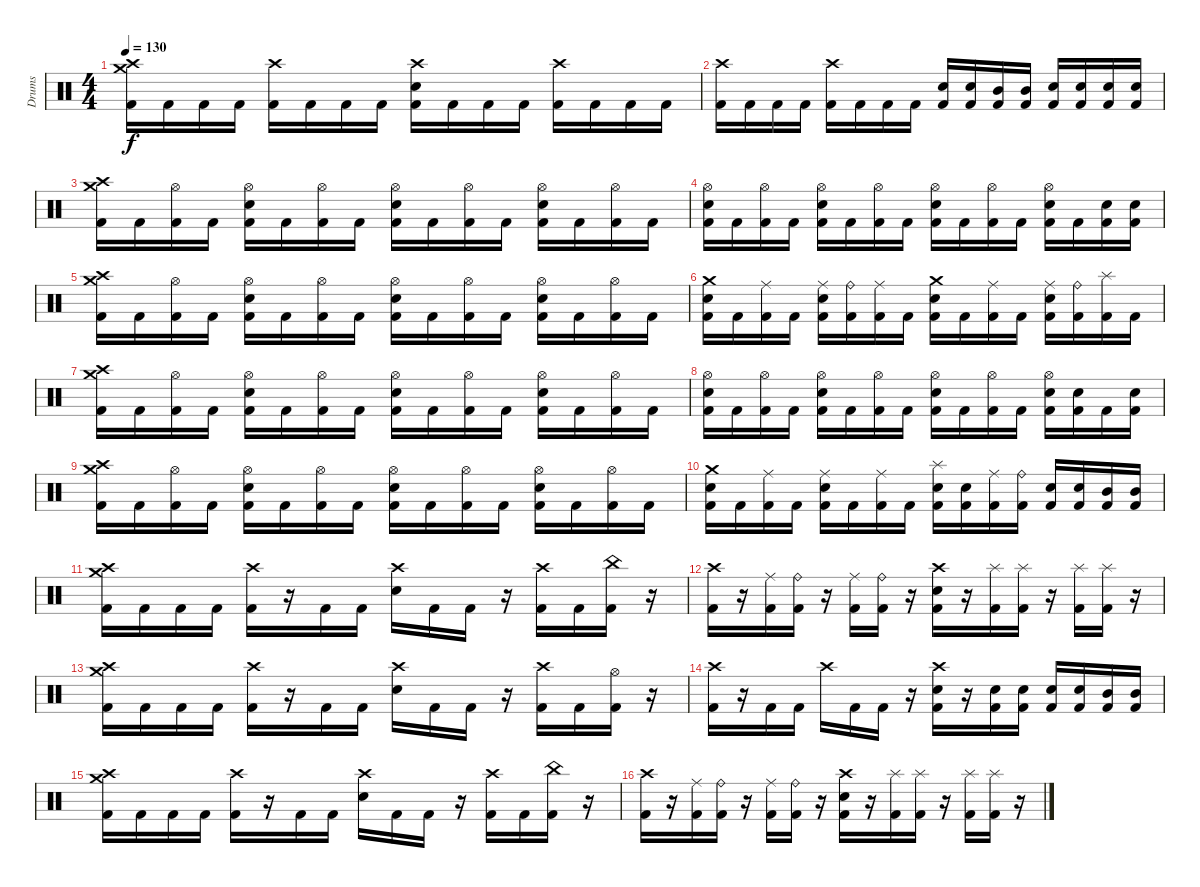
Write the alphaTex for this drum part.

\track ("Drums" "Drums") {instrument percussion}
\staff {score}
\articulation defaults
\ts (4 4)
\tempo 130
\clef neutral
\ks c
("Crash high (hit)" "Crash medium (hit)" "Kick (hit) 2").16{dy f} "Kick (hit) 2".16 "Kick (hit) 2".16 "Kick (hit) 2".16 ("Crash high (hit)" "Kick (hit) 2").16 "Kick (hit) 2".16 "Kick (hit) 2".16 "Kick (hit) 2".16 ("Crash high (hit)" "Electric Snare (hit)" "Kick (hit) 2").16 "Kick (hit) 2".16 "Kick (hit) 2".16 "Kick (hit) 2".16 ("Crash high (hit)" "Kick (hit) 2").16 "Kick (hit) 2".16 "Kick (hit) 2".16 "Kick (hit) 2".16 |
("Crash high (hit)" "Kick (hit) 2").16 "Kick (hit) 2".16 "Kick (hit) 2".16 "Kick (hit) 2".16 ("Crash high (hit)" "Kick (hit) 2").16 "Kick (hit) 2".16 "Kick (hit) 2".16 "Kick (hit) 2".16 ("Electric Snare (hit)" "Kick (hit) 2").16 ("Electric Snare (hit)" "Kick (hit) 2").16 ("Mid Tom (hit)" "Kick (hit) 2").16 ("Mid Tom (hit)" "Kick (hit) 2").16 ("Electric Snare (hit)" "Kick (hit) 2").16 ("Electric Snare (hit)" "Kick (hit) 2").16 ("Electric Snare (hit)" "Kick (hit) 2").16 ("Electric Snare (hit)" "Kick (hit) 2").16 |
("Crash high (hit)" "Crash medium (hit)" "Kick (hit) 2").16 "Kick (hit) 2".16 ("Hi-Hat (open)" "Kick (hit) 2").16 "Kick (hit) 2".16 ("Hi-Hat (open)" "Electric Snare (hit)" "Kick (hit) 2").16 "Kick (hit) 2".16 ("Hi-Hat (open)" "Kick (hit) 2").16 "Kick (hit) 2".16 ("Hi-Hat (open)" "Electric Snare (hit)" "Kick (hit) 2").16 "Kick (hit) 2".16 ("Hi-Hat (open)" "Kick (hit) 2").16 "Kick (hit) 2".16 ("Hi-Hat (open)" "Electric Snare (hit)" "Kick (hit) 2").16 "Kick (hit) 2".16 ("Hi-Hat (open)" "Kick (hit) 2").16 "Kick (hit) 2".16 |
("Hi-Hat (open)" "Electric Snare (hit)" "Kick (hit) 2").16 "Kick (hit) 2".16 ("Hi-Hat (open)" "Kick (hit) 2").16 "Kick (hit) 2".16 ("Hi-Hat (open)" "Electric Snare (hit)" "Kick (hit) 2").16 "Kick (hit) 2".16 ("Hi-Hat (open)" "Kick (hit) 2").16 "Kick (hit) 2".16 ("Hi-Hat (open)" "Electric Snare (hit)" "Kick (hit) 2").16 "Kick (hit) 2".16 ("Hi-Hat (open)" "Kick (hit) 2").16 "Kick (hit) 2".16 ("Hi-Hat (open)" "Electric Snare (hit)" "Kick (hit) 2").16 "Kick (hit) 2".16 ("Electric Snare (hit)" "Kick (hit) 2").16 ("Electric Snare (hit)" "Kick (hit) 2").16 |
("Crash high (hit)" "Crash medium (hit)" "Kick (hit) 2").16 "Kick (hit) 2".16 ("Hi-Hat (open)" "Kick (hit) 2").16 "Kick (hit) 2".16 ("Hi-Hat (open)" "Electric Snare (hit)" "Kick (hit) 2").16 "Kick (hit) 2".16 ("Hi-Hat (open)" "Kick (hit) 2").16 "Kick (hit) 2".16 ("Hi-Hat (open)" "Electric Snare (hit)" "Kick (hit) 2").16 "Kick (hit) 2".16 ("Hi-Hat (open)" "Kick (hit) 2").16 "Kick (hit) 2".16 ("Hi-Hat (open)" "Electric Snare (hit)" "Kick (hit) 2").16 "Kick (hit) 2".16 ("Hi-Hat (open)" "Kick (hit) 2").16 "Kick (hit) 2".16 |
("Crash medium (hit)" "Electric Snare (hit)" "Kick (hit) 2").16 "Kick (hit) 2".16 ("Ride (middle)" "Kick (hit) 2").16 "Kick (hit) 2".16 ("Ride (middle)" "Electric Snare (hit)" "Kick (hit) 2").16 ("Ride (bell)" "Kick (hit) 2").16 ("Ride (middle)" "Kick (hit) 2").16 "Kick (hit) 2".16 ("Crash medium (hit)" "Electric Snare (hit)" "Kick (hit) 2").16 "Kick (hit) 2".16 ("Ride (middle)" "Kick (hit) 2").16 "Kick (hit) 2".16 ("Ride (middle)" "Electric Snare (hit)" "Kick (hit) 2").16 ("Ride (bell)" "Kick (hit) 2").16 ("Splash (hit)" "Kick (hit) 2").16 "Kick (hit) 2".16 |
("Crash high (hit)" "Crash medium (hit)" "Kick (hit) 2").16 "Kick (hit) 2".16 ("Hi-Hat (open)" "Kick (hit) 2").16 "Kick (hit) 2".16 ("Hi-Hat (open)" "Electric Snare (hit)" "Kick (hit) 2").16 "Kick (hit) 2".16 ("Hi-Hat (open)" "Kick (hit) 2").16 "Kick (hit) 2".16 ("Hi-Hat (open)" "Electric Snare (hit)" "Kick (hit) 2").16 "Kick (hit) 2".16 ("Hi-Hat (open)" "Kick (hit) 2").16 "Kick (hit) 2".16 ("Hi-Hat (open)" "Electric Snare (hit)" "Kick (hit) 2").16 "Kick (hit) 2".16 ("Hi-Hat (open)" "Kick (hit) 2").16 "Kick (hit) 2".16 |
("Hi-Hat (open)" "Electric Snare (hit)" "Kick (hit) 2").16 "Kick (hit) 2".16 ("Hi-Hat (open)" "Kick (hit) 2").16 "Kick (hit) 2".16 ("Hi-Hat (open)" "Electric Snare (hit)" "Kick (hit) 2").16 "Kick (hit) 2".16 ("Hi-Hat (open)" "Kick (hit) 2").16 "Kick (hit) 2".16 ("Hi-Hat (open)" "Electric Snare (hit)" "Kick (hit) 2").16 "Kick (hit) 2".16 ("Hi-Hat (open)" "Kick (hit) 2").16 "Kick (hit) 2".16 ("Hi-Hat (open)" "Electric Snare (hit)" "Kick (hit) 2").16 ("Electric Snare (hit)" "Kick (hit) 2").16 "Kick (hit) 2".16 ("Electric Snare (hit)" "Kick (hit) 2").16 |
("Crash high (hit)" "Crash medium (hit)" "Kick (hit) 2").16 "Kick (hit) 2".16 ("Hi-Hat (open)" "Kick (hit) 2").16 "Kick (hit) 2".16 ("Hi-Hat (open)" "Electric Snare (hit)" "Kick (hit) 2").16 "Kick (hit) 2".16 ("Hi-Hat (open)" "Kick (hit) 2").16 "Kick (hit) 2".16 ("Hi-Hat (open)" "Electric Snare (hit)" "Kick (hit) 2").16 "Kick (hit) 2".16 ("Hi-Hat (open)" "Kick (hit) 2").16 "Kick (hit) 2".16 ("Hi-Hat (open)" "Electric Snare (hit)" "Kick (hit) 2").16 "Kick (hit) 2".16 ("Hi-Hat (open)" "Kick (hit) 2").16 "Kick (hit) 2".16 |
("Crash medium (hit)" "Electric Snare (hit)" "Kick (hit) 2").16 "Kick (hit) 2".16 ("Ride (middle)" "Kick (hit) 2").16 "Kick (hit) 2".16 ("Ride (middle)" "Electric Snare (hit)" "Kick (hit) 2").16 "Kick (hit) 2".16 ("Ride (middle)" "Kick (hit) 2").16 "Kick (hit) 2".16 ("Splash (hit)" "Electric Snare (hit)" "Kick (hit) 2").16 ("Electric Snare (hit)" "Kick (hit) 2").16 ("Ride (middle)" "Kick (hit) 2").16 ("Ride (bell)" "Kick (hit) 2").16 ("Electric Snare (hit)" "Kick (hit) 2").16 ("Electric Snare (hit)" "Kick (hit) 2").16 ("Mid Tom (hit)" "Kick (hit) 2").16 ("Mid Tom (hit)" "Kick (hit) 2").16 |
("Crash high (hit)" "Crash medium (hit)" "Kick (hit) 2").16 "Kick (hit) 2".16 "Kick (hit) 2".16 "Kick (hit) 2".16 ("Crash high (hit)" "Kick (hit) 2").16 r.16 "Kick (hit) 2".16 "Kick (hit) 2".16 ("Crash high (hit)" "Electric Snare (hit)").16 "Kick (hit) 2".16 "Kick (hit) 2".16 r.16 ("Crash high (hit)" "Kick (hit) 2").16 "Kick (hit) 2".16 ("China (hit)" "Kick (hit) 2").16 r.16 |
("Crash high (hit)" "Kick (hit) 2").16 r.16 ("Ride (middle)" "Kick (hit) 2").16 ("Ride (bell)" "Kick (hit) 2").16 r.16 ("Ride (middle)" "Kick (hit) 2").16 ("Ride (bell)" "Kick (hit) 2").16 r.16 ("Crash high (hit)" "Electric Snare (hit)" "Kick (hit) 2").16 r.16 ("Splash (hit)" "Kick (hit) 2").16 ("Splash (hit)" "Kick (hit) 2").16 r.16 ("Splash (hit)" "Kick (hit) 2").16 ("Splash (hit)" "Kick (hit) 2").16 r.16 |
("Crash high (hit)" "Crash medium (hit)" "Kick (hit) 2").16 "Kick (hit) 2".16 "Kick (hit) 2".16 "Kick (hit) 2".16 ("Crash high (hit)" "Kick (hit) 2").16 r.16 "Kick (hit) 2".16 "Kick (hit) 2".16 ("Crash high (hit)" "Electric Snare (hit)").16 "Kick (hit) 2".16 "Kick (hit) 2".16 r.16 ("Crash high (hit)" "Kick (hit) 2").16 "Kick (hit) 2".16 ("Hi-Hat (open)" "Kick (hit) 2").16 r.16 |
("Crash high (hit)" "Kick (hit) 2").16 r.16 "Kick (hit) 2".16 "Kick (hit) 2".16 "Crash high (hit)".16 "Kick (hit) 2".16 "Kick (hit) 2".16 r.16 ("Crash high (hit)" "Electric Snare (hit)" "Kick (hit) 2").16 r.16 ("Electric Snare (hit)" "Kick (hit) 2").16 ("Electric Snare (hit)" "Kick (hit) 2").16 ("Electric Snare (hit)" "Kick (hit) 2").16 ("Electric Snare (hit)" "Kick (hit) 2").16 ("Mid Tom (hit)" "Kick (hit) 2").16 ("Mid Tom (hit)" "Kick (hit) 2").16 |
("Crash high (hit)" "Crash medium (hit)" "Kick (hit) 2").16 "Kick (hit) 2".16 "Kick (hit) 2".16 "Kick (hit) 2".16 ("Crash high (hit)" "Kick (hit) 2").16 r.16 "Kick (hit) 2".16 "Kick (hit) 2".16 ("Crash high (hit)" "Electric Snare (hit)").16 "Kick (hit) 2".16 "Kick (hit) 2".16 r.16 ("Crash high (hit)" "Kick (hit) 2").16 "Kick (hit) 2".16 ("China (hit)" "Kick (hit) 2").16 r.16 |
("Crash high (hit)" "Kick (hit) 2").16 r.16 ("Ride (middle)" "Kick (hit) 2").16 ("Ride (bell)" "Kick (hit) 2").16 r.16 ("Ride (middle)" "Kick (hit) 2").16 ("Ride (bell)" "Kick (hit) 2").16 r.16 ("Crash high (hit)" "Electric Snare (hit)" "Kick (hit) 2").16 r.16 ("Splash (hit)" "Kick (hit) 2").16 ("Splash (hit)" "Kick (hit) 2").16 r.16 ("Splash (hit)" "Kick (hit) 2").16 ("Splash (hit)" "Kick (hit) 2").16 r.16
